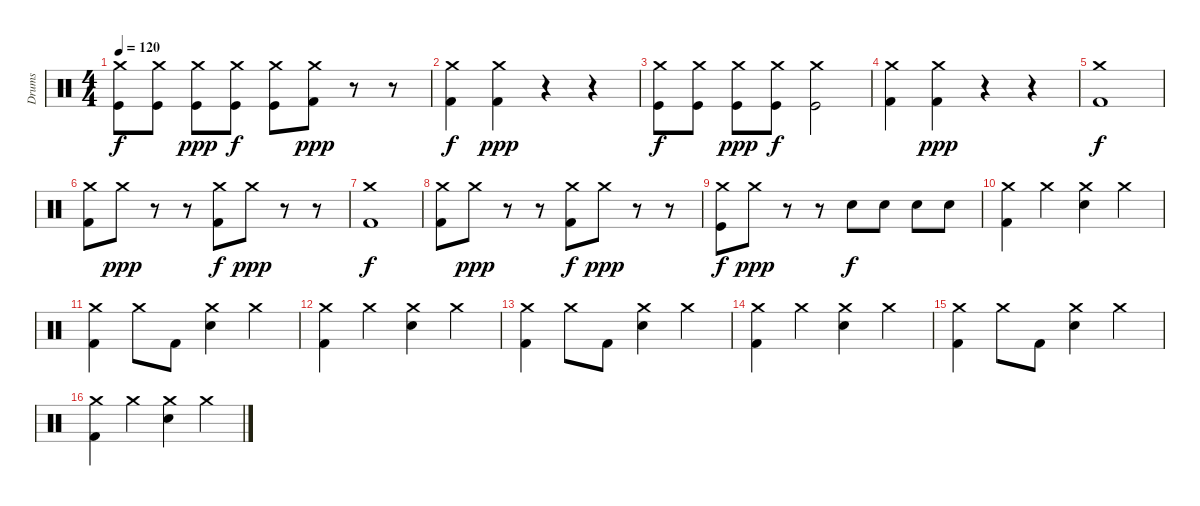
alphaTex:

\track ("Drums" "Drums") {instrument percussion}
\staff {score}
\articulation defaults
\ts (4 4)
\tempo 120
\clef neutral
\ks c
("Crash medium (hit)" "Kick (hit)").8{dy f} ("Crash medium (hit)" "Kick (hit)").8 ("Crash medium (hit)" "Kick (hit)").8{dy ppp} ("Crash medium (hit)" "Kick (hit)").8{dy f} ("Crash medium (hit)" "Kick (hit)").8 ("Crash medium (hit)" "Kick (hit) 2").8{dy ppp} r.8 r.8 |
("Crash medium (hit)" "Kick (hit) 2").4{dy f} ("Crash medium (hit)" "Kick (hit) 2").4{dy ppp} r.4 r.4 |
("Crash medium (hit)" "Kick (hit)").8{dy f} ("Crash medium (hit)" "Kick (hit)").8 ("Crash medium (hit)" "Kick (hit)").8{dy ppp} ("Crash medium (hit)" "Kick (hit)").8{dy f} ("Crash medium (hit)" "Kick (hit)").2 |
("Crash medium (hit)" "Kick (hit) 2").4 ("Crash medium (hit)" "Kick (hit) 2").4{dy ppp} r.4 r.4 |
("Crash medium (hit)" "Kick (hit) 2").1{dy f} |
("Crash medium (hit)" "Kick (hit) 2").8 "Crash medium (hit)".8{dy ppp} r.8 r.8 ("Crash medium (hit)" "Kick (hit) 2").8{dy f} "Crash medium (hit)".8{dy ppp} r.8 r.8 |
("Crash medium (hit)" "Kick (hit) 2").1{dy f} |
("Crash medium (hit)" "Kick (hit) 2").8 "Crash medium (hit)".8{dy ppp} r.8 r.8 ("Crash medium (hit)" "Kick (hit) 2").8{dy f} "Crash medium (hit)".8{dy ppp} r.8 r.8 |
("Crash medium (hit)" "Kick (hit)").8{dy f} "Crash medium (hit)".8{dy ppp} r.8 r.8 "Snare (hit) 2".8{dy f} "Snare (hit) 2".8 "Snare (hit) 2".8 "Snare (hit) 2".8 |
("Crash medium (hit)" "Kick (hit) 2").4 "Crash medium (hit)".4 ("Crash medium (hit)" "Snare (hit) 2").4 "Crash medium (hit)".4 |
("Crash medium (hit)" "Kick (hit) 2").4 "Crash medium (hit)".8 "Kick (hit) 2".8 ("Crash medium (hit)" "Snare (hit) 2").4 "Crash medium (hit)".4 |
("Crash medium (hit)" "Kick (hit) 2").4 "Crash medium (hit)".4 ("Crash medium (hit)" "Snare (hit) 2").4 "Crash medium (hit)".4 |
("Crash medium (hit)" "Kick (hit) 2").4 "Crash medium (hit)".8 "Kick (hit) 2".8 ("Crash medium (hit)" "Snare (hit) 2").4 "Crash medium (hit)".4 |
("Crash medium (hit)" "Kick (hit) 2").4 "Crash medium (hit)".4 ("Crash medium (hit)" "Snare (hit) 2").4 "Crash medium (hit)".4 |
("Crash medium (hit)" "Kick (hit) 2").4 "Crash medium (hit)".8 "Kick (hit) 2".8 ("Crash medium (hit)" "Snare (hit) 2").4 "Crash medium (hit)".4 |
("Crash medium (hit)" "Kick (hit) 2").4 "Crash medium (hit)".4 ("Crash medium (hit)" "Snare (hit) 2").4 "Crash medium (hit)".4
